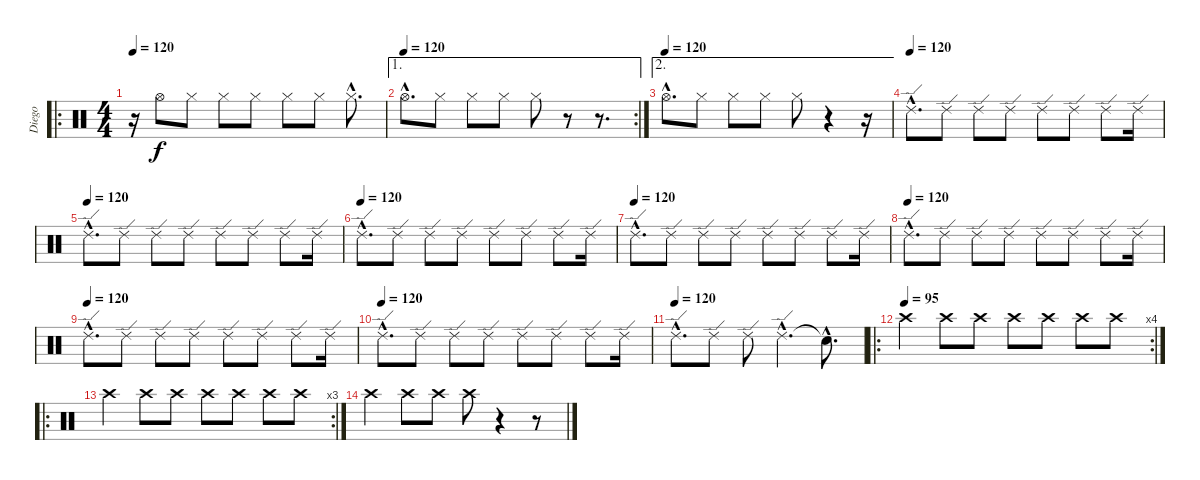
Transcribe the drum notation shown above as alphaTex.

\track ("Diego" "Diego") {instrument percussion}
\staff {score}
\articulation defaults
\ro
\ts (4 4)
\tempo 120
\clef neutral
\ks c
r.16{dy f} "Hi-Hat (open)".8 "Hi-Hat (closed)".8 "Hi-Hat (closed)".8 "Hi-Hat (closed)".8 "Hi-Hat (closed)".8 "Hi-Hat (closed)".8 "Hi-Hat (closed)"{hac}.8{d} |
\ae 1
\rc 2
\tempo (120)
"Hi-Hat (open)"{hac}.8{d} "Hi-Hat (closed)".8 "Hi-Hat (closed)".8 "Hi-Hat (closed)".8 "Hi-Hat (closed)".8 r.8 r.8{d} |
\ae 2
\tempo (120)
"Hi-Hat (open)"{hac}.8{d} "Hi-Hat (closed)".8 "Hi-Hat (closed)".8 "Hi-Hat (closed)".8 "Hi-Hat (closed)".8 r.4 r.16 |
\tempo (120)
"Ride (edge) 2"{hac}.8{d} "Ride (edge) 2".8 "Ride (edge) 2".8 "Ride (edge) 2".8 "Ride (edge) 2".8 "Ride (edge) 2".8 "Ride (edge) 2".8 "Ride (edge) 2".16 |
\tempo (120)
"Ride (edge) 2"{hac}.8{d} "Ride (edge) 2".8 "Ride (edge) 2".8 "Ride (edge) 2".8 "Ride (edge) 2".8 "Ride (edge) 2".8 "Ride (edge) 2".8 "Ride (edge) 2".16 |
\tempo (120)
"Ride (edge) 2"{hac}.8{d} "Ride (edge) 2".8 "Ride (edge) 2".8 "Ride (edge) 2".8 "Ride (edge) 2".8 "Ride (edge) 2".8 "Ride (edge) 2".8 "Ride (edge) 2".16 |
\tempo (120)
"Ride (edge) 2"{hac}.8{d} "Ride (edge) 2".8 "Ride (edge) 2".8 "Ride (edge) 2".8 "Ride (edge) 2".8 "Ride (edge) 2".8 "Ride (edge) 2".8 "Ride (edge) 2".16 |
\tempo (120)
"Ride (edge) 2"{hac}.8{d} "Ride (edge) 2".8 "Ride (edge) 2".8 "Ride (edge) 2".8 "Ride (edge) 2".8 "Ride (edge) 2".8 "Ride (edge) 2".8 "Ride (edge) 2".16 |
\tempo (120)
"Ride (edge) 2"{hac}.8{d} "Ride (edge) 2".8 "Ride (edge) 2".8 "Ride (edge) 2".8 "Ride (edge) 2".8 "Ride (edge) 2".8 "Ride (edge) 2".8 "Ride (edge) 2".16 |
\tempo (120)
"Ride (edge) 2"{hac}.8{d} "Ride (edge) 2".8 "Ride (edge) 2".8 "Ride (edge) 2".8 "Ride (edge) 2".8 "Ride (edge) 2".8 "Ride (edge) 2".8 "Ride (edge) 2".16 |
\tempo (120)
"Ride (edge) 2"{hac}.8{d} "Ride (edge) 2".8 "Ride (edge) 2".8 "Ride (edge) 2"{hac}.4{d} "Snare (hit)"{hac t}.8{d} |
\ro
\rc 4
\tempo (95)
"Crash high (hit)".4 "Crash high (hit)".8 "Crash high (hit)".8 "Crash high (hit)".8 "Crash high (hit)".8 "Crash high (hit)".8 "Crash high (hit)".8 |
\ro
\rc 3 "Crash high (hit)".4 "Crash high (hit)".8 "Crash high (hit)".8 "Crash high (hit)".8 "Crash high (hit)".8 "Crash high (hit)".8 "Crash high (hit)".8
|
"Crash high (hit)".4 "Crash high (hit)".8 "Crash high (hit)".8 "Crash high (hit)".8 r.4 r.8
